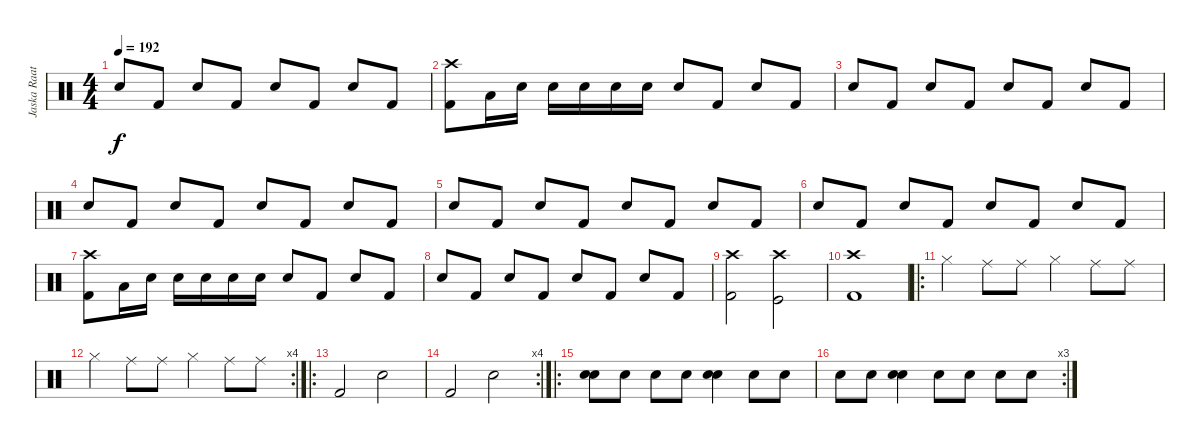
\track ("Jaska Raatikainen " "Jaska Raat") {instrument percussion}
\staff {score}
\articulation defaults
\ts (4 4)
\tempo 192
\clef neutral
\ks c "Snare (hit) 2".8{dy f} "Kick (hit) 2".8 "Snare (hit) 2".8 "Kick (hit) 2".8 "Snare (hit) 2".8 "Kick (hit) 2".8 "Snare (hit) 2".8 "Kick (hit) 2".8
|
("Crash high (hit)" "Kick (hit) 2").8 "Low Floor Tom (hit)".16 "Snare (hit) 2".16 "Snare (hit) 2".16 "Snare (hit) 2".16 "Snare (hit) 2".16 "Snare (hit) 2".16 "Snare (hit) 2".8 "Kick (hit) 2".8 "Snare (hit) 2".8 "Kick (hit) 2".8 |
"Snare (hit) 2".8 "Kick (hit) 2".8 "Snare (hit) 2".8 "Kick (hit) 2".8 "Snare (hit) 2".8 "Kick (hit) 2".8 "Snare (hit) 2".8 "Kick (hit) 2".8 |
"Snare (hit) 2".8 "Kick (hit) 2".8 "Snare (hit) 2".8 "Kick (hit) 2".8 "Snare (hit) 2".8 "Kick (hit) 2".8 "Snare (hit) 2".8 "Kick (hit) 2".8 |
"Snare (hit) 2".8 "Kick (hit) 2".8 "Snare (hit) 2".8 "Kick (hit) 2".8 "Snare (hit) 2".8 "Kick (hit) 2".8 "Snare (hit) 2".8 "Kick (hit) 2".8 |
"Snare (hit) 2".8 "Kick (hit) 2".8 "Snare (hit) 2".8 "Kick (hit) 2".8 "Snare (hit) 2".8 "Kick (hit) 2".8 "Snare (hit) 2".8 "Kick (hit) 2".8 |
("Crash high (hit)" "Kick (hit) 2").8 "Low Floor Tom (hit)".16 "Snare (hit) 2".16 "Snare (hit) 2".16 "Snare (hit) 2".16 "Snare (hit) 2".16 "Snare (hit) 2".16 "Snare (hit) 2".8 "Kick (hit) 2".8 "Snare (hit) 2".8 "Kick (hit) 2".8 |
"Snare (hit) 2".8 "Kick (hit) 2".8 "Snare (hit) 2".8 "Kick (hit) 2".8 "Snare (hit) 2".8 "Kick (hit) 2".8 "Snare (hit) 2".8 "Kick (hit) 2".8 |
("Crash high (hit)" "Kick (hit) 2").2 ("Crash high (hit)" "Kick (hit)").2 |
("Crash high (hit)" "Kick (hit) 2").1 |
\ro "Hi-Hat (closed)".4 "Ride (middle)".8 "Ride (middle)".8 "Hi-Hat (closed)".4 "Ride (middle)".8 "Ride (middle)".8
|
\rc 4 "Hi-Hat (closed)".4 "Ride (middle)".8 "Ride (middle)".8 "Hi-Hat (closed)".4 "Ride (middle)".8 "Ride (middle)".8
|
\ro "Kick (hit) 2".2 "Snare (hit) 2".2
|
\rc 4 "Kick (hit) 2".2 "Snare (hit) 2".2
|
\ro
("Snare (hit) 2" "Snare (hit) 2").8 "Snare (hit) 2".8 "Snare (hit) 2".8 "Snare (hit) 2".8 ("Snare (hit) 2" "Snare (hit) 2").4 "Snare (hit) 2".8 "Snare (hit) 2".8 |
\rc 3 "Snare (hit) 2".8 "Snare (hit) 2".8
("Snare (hit) 2" "Snare (hit) 2").4 "Snare (hit) 2".8 "Snare (hit) 2".8 "Snare (hit) 2".8 "Snare (hit) 2".8
